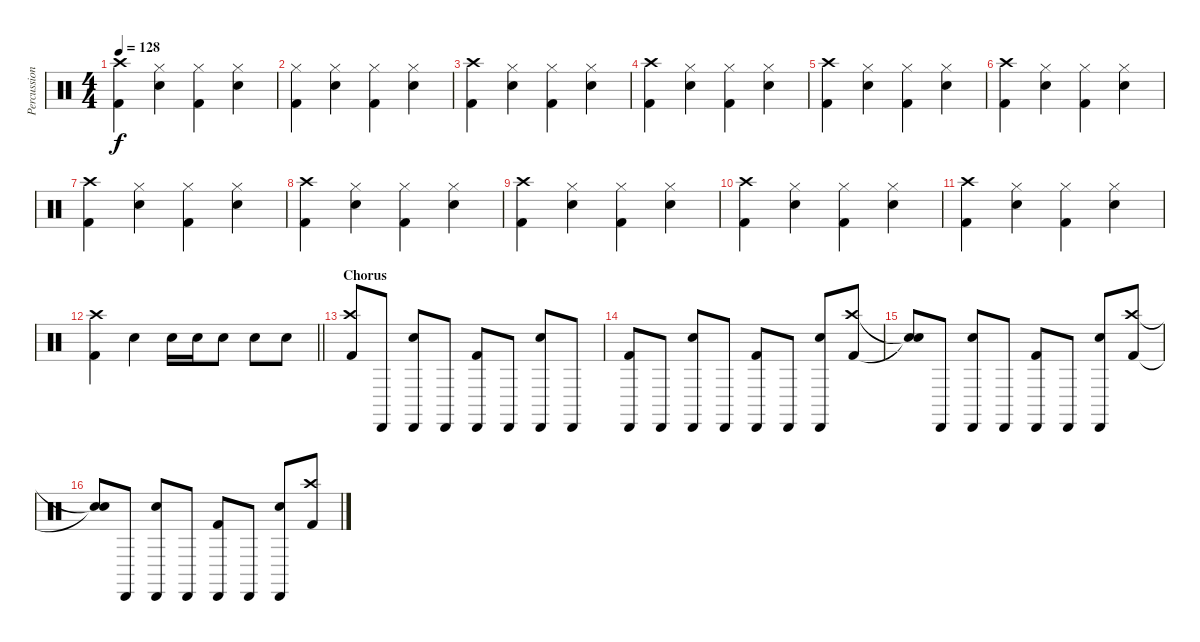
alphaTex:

\track ("Percussion" "Percussion") {instrument percussion}
\staff {score}
\articulation defaults
\ts (4 4)
\tempo 128
\clef neutral
\ks c
("Kick (hit) 2" "Crash high (hit)").4{dy f} ("Snare (hit) 2" "Hi-Hat (closed)").4 ("Kick (hit) 2" "Hi-Hat (closed)").4 ("Snare (hit) 2" "Hi-Hat (closed)").4 |
("Kick (hit) 2" "Hi-Hat (closed)").4 ("Snare (hit) 2" "Hi-Hat (closed)").4 ("Kick (hit) 2" "Hi-Hat (closed)").4 ("Snare (hit) 2" "Hi-Hat (closed)").4 |
("Kick (hit) 2" "Crash high (hit)").4 ("Snare (hit) 2" "Hi-Hat (closed)").4 ("Kick (hit) 2" "Hi-Hat (closed)").4 ("Snare (hit) 2" "Hi-Hat (closed)").4 |
("Kick (hit) 2" "Crash high (hit)").4 ("Snare (hit) 2" "Hi-Hat (closed)").4 ("Kick (hit) 2" "Hi-Hat (closed)").4 ("Snare (hit) 2" "Hi-Hat (closed)").4 |
("Kick (hit) 2" "Crash high (hit)").4 ("Snare (hit) 2" "Hi-Hat (closed)").4 ("Kick (hit) 2" "Hi-Hat (closed)").4 ("Snare (hit) 2" "Hi-Hat (closed)").4 |
("Kick (hit) 2" "Crash high (hit)").4 ("Snare (hit) 2" "Hi-Hat (closed)").4 ("Kick (hit) 2" "Hi-Hat (closed)").4 ("Snare (hit) 2" "Hi-Hat (closed)").4 |
("Kick (hit) 2" "Crash high (hit)").4 ("Snare (hit) 2" "Hi-Hat (closed)").4 ("Kick (hit) 2" "Hi-Hat (closed)").4 ("Snare (hit) 2" "Hi-Hat (closed)").4 |
("Kick (hit) 2" "Crash high (hit)").4 ("Snare (hit) 2" "Hi-Hat (closed)").4 ("Kick (hit) 2" "Hi-Hat (closed)").4 ("Snare (hit) 2" "Hi-Hat (closed)").4 |
("Kick (hit) 2" "Crash high (hit)").4 ("Snare (hit) 2" "Hi-Hat (closed)").4 ("Kick (hit) 2" "Hi-Hat (closed)").4 ("Snare (hit) 2" "Hi-Hat (closed)").4 |
("Kick (hit) 2" "Crash high (hit)").4 ("Snare (hit) 2" "Hi-Hat (closed)").4 ("Kick (hit) 2" "Hi-Hat (closed)").4 ("Snare (hit) 2" "Hi-Hat (closed)").4 |
("Kick (hit) 2" "Crash high (hit)").4 ("Snare (hit) 2" "Hi-Hat (closed)").4 ("Kick (hit) 2" "Hi-Hat (closed)").4 ("Snare (hit) 2" "Hi-Hat (closed)").4 |
\barLineRight lightlight
("Kick (hit) 2" "Crash high (hit)").4 "Snare (hit) 2".4 "Snare (hit) 2".16 "Snare (hit) 2".16 "Snare (hit) 2".8 "Snare (hit) 2".8 "Snare (hit) 2".8 |
\section ("" "Chorus")
("Kick (hit) 2" "Crash high (hit)").8 "Cabasa (hit)".8 ("Snare (hit) 2" "Cabasa (hit)").8 "Cabasa (hit)".8 ("Kick (hit) 2" "Cabasa (hit)").8 "Cabasa (hit)".8 ("Snare (hit) 2" "Cabasa (hit)").8 "Cabasa (hit)".8 |
("Kick (hit) 2" "Cabasa (hit)").8 "Cabasa (hit)".8 ("Snare (hit) 2" "Cabasa (hit)").8 "Cabasa (hit)".8 ("Kick (hit) 2" "Cabasa (hit)").8 "Cabasa (hit)".8 ("Snare (hit) 2" "Cabasa (hit)").8 ("Kick (hit) 2" "Crash high (hit)").8 |
("Snare (hit)"{t} "Snare (hit)"{t}).8 "Cabasa (hit)".8 ("Snare (hit) 2" "Cabasa (hit)").8 "Cabasa (hit)".8 ("Kick (hit) 2" "Cabasa (hit)").8 "Cabasa (hit)".8 ("Snare (hit) 2" "Cabasa (hit)").8 ("Kick (hit) 2" "Crash high (hit)").8 |
("Snare (hit)"{t} "Snare (hit)"{t}).8 "Cabasa (hit)".8 ("Snare (hit) 2" "Cabasa (hit)").8 "Cabasa (hit)".8 ("Kick (hit) 2" "Cabasa (hit)").8 "Cabasa (hit)".8 ("Snare (hit) 2" "Cabasa (hit)").8 ("Kick (hit) 2" "Crash high (hit)").8
